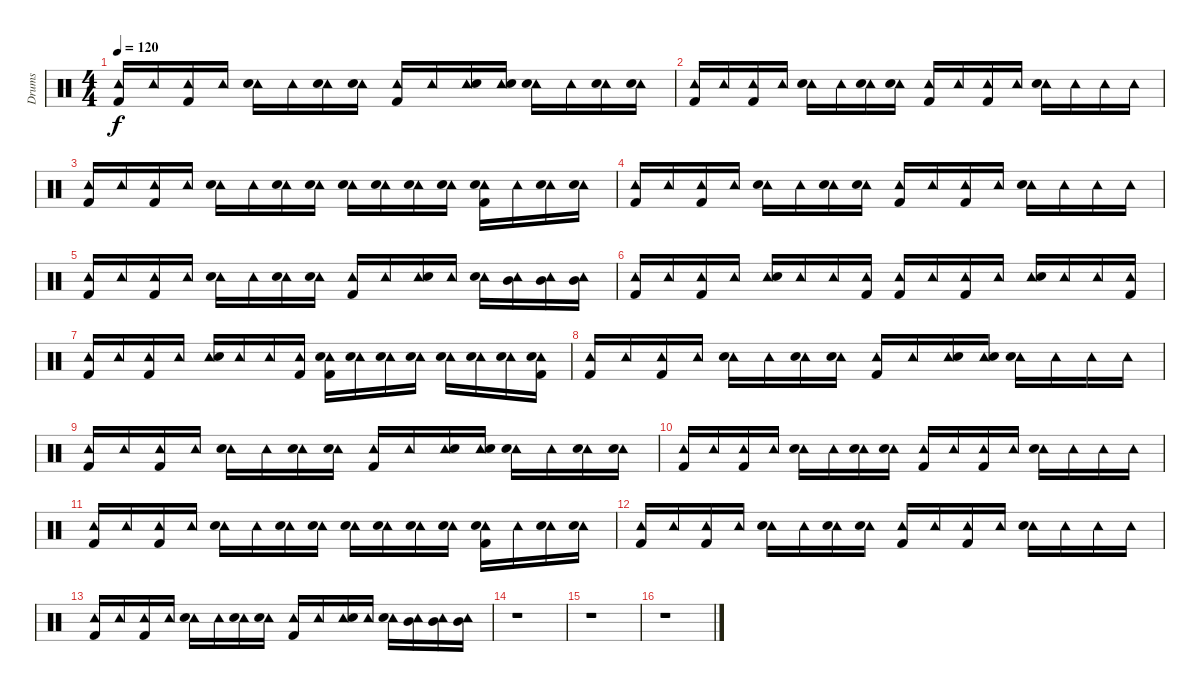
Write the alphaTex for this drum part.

\track ("Drums" "Drums") {instrument percussion}
\staff {score}
\articulation defaults
\ts (4 4)
\tempo 120
\clef neutral
\ks c
("Tambourine (hit)" "Kick (hit) 2").16{dy f} "Tambourine (hit)".16 ("Tambourine (hit)" "Kick (hit) 2").16 "Tambourine (hit)".16 ("Tambourine (hit)" "Snare (hit) 2").16 "Tambourine (hit)".16 ("Tambourine (hit)" "Snare (hit) 2").16 ("Tambourine (hit)" "Snare (hit) 2").16 ("Tambourine (hit)" "Kick (hit) 2").16 "Tambourine (hit)".16 ("Tambourine (hit)" "Snare (hit) 2").16 ("Tambourine (hit)" "Snare (hit) 2").16 ("Tambourine (hit)" "Snare (hit) 2").16 "Tambourine (hit)".16 ("Tambourine (hit)" "Snare (hit) 2").16 ("Tambourine (hit)" "Snare (hit) 2").16 |
("Tambourine (hit)" "Kick (hit) 2").16 "Tambourine (hit)".16 ("Tambourine (hit)" "Kick (hit) 2").16 "Tambourine (hit)".16 ("Tambourine (hit)" "Snare (hit) 2").16 "Tambourine (hit)".16 ("Tambourine (hit)" "Snare (hit) 2").16 ("Tambourine (hit)" "Snare (hit) 2").16 ("Tambourine (hit)" "Kick (hit) 2").16 "Tambourine (hit)".16 ("Tambourine (hit)" "Kick (hit) 2").16 "Tambourine (hit)".16 ("Tambourine (hit)" "Snare (hit) 2").16 "Tambourine (hit)".16 "Tambourine (hit)".16 "Tambourine (hit)".16 |
("Tambourine (hit)" "Kick (hit) 2").16 "Tambourine (hit)".16 ("Tambourine (hit)" "Kick (hit) 2").16 "Tambourine (hit)".16 ("Tambourine (hit)" "Snare (hit) 2").16 "Tambourine (hit)".16 ("Tambourine (hit)" "Snare (hit) 2").16 ("Tambourine (hit)" "Snare (hit) 2").16 ("Tambourine (hit)" "Snare (hit) 2").16 ("Tambourine (hit)" "Snare (hit) 2").16 ("Tambourine (hit)" "Snare (hit) 2").16 ("Tambourine (hit)" "Snare (hit) 2").16 ("Tambourine (hit)" "Snare (hit) 2" "Kick (hit) 2").16 "Tambourine (hit)".16 ("Tambourine (hit)" "Snare (hit) 2").16 ("Tambourine (hit)" "Snare (hit) 2").16 |
("Tambourine (hit)" "Kick (hit) 2").16 "Tambourine (hit)".16 ("Tambourine (hit)" "Kick (hit) 2").16 "Tambourine (hit)".16 ("Tambourine (hit)" "Snare (hit) 2").16 "Tambourine (hit)".16 ("Tambourine (hit)" "Snare (hit) 2").16 ("Tambourine (hit)" "Snare (hit) 2").16 ("Tambourine (hit)" "Kick (hit) 2").16 "Tambourine (hit)".16 ("Tambourine (hit)" "Kick (hit) 2").16 "Tambourine (hit)".16 ("Tambourine (hit)" "Snare (hit) 2").16 "Tambourine (hit)".16 "Tambourine (hit)".16 "Tambourine (hit)".16 |
("Tambourine (hit)" "Kick (hit) 2").16 "Tambourine (hit)".16 ("Tambourine (hit)" "Kick (hit) 2").16 "Tambourine (hit)".16 ("Tambourine (hit)" "Snare (hit) 2").16 "Tambourine (hit)".16 ("Tambourine (hit)" "Snare (hit) 2").16 ("Tambourine (hit)" "Snare (hit) 2").16 ("Tambourine (hit)" "Kick (hit) 2").16 "Tambourine (hit)".16 ("Tambourine (hit)" "Snare (hit) 2").16 "Tambourine (hit)".16 ("Tambourine (hit)" "Snare (hit) 2").16 ("Tambourine (hit)" "Mid Tom (hit)").16 ("Tambourine (hit)" "Mid Tom (hit)").16 ("Tambourine (hit)" "Mid Tom (hit)").16 |
("Tambourine (hit)" "Kick (hit) 2").16{volume 8} "Tambourine (hit)".16 ("Tambourine (hit)" "Kick (hit) 2").16 "Tambourine (hit)".16 ("Tambourine (hit)" "Snare (hit) 2").16 "Tambourine (hit)".16 "Tambourine (hit)".16 ("Tambourine (hit)" "Kick (hit) 2").16 ("Tambourine (hit)" "Kick (hit) 2").16 "Tambourine (hit)".16 ("Tambourine (hit)" "Kick (hit) 2").16 "Tambourine (hit)".16 ("Tambourine (hit)" "Snare (hit) 2").16 "Tambourine (hit)".16 "Tambourine (hit)".16 ("Tambourine (hit)" "Kick (hit) 2").16 |
("Tambourine (hit)" "Kick (hit) 2").16 "Tambourine (hit)".16 ("Tambourine (hit)" "Kick (hit) 2").16 "Tambourine (hit)".16 ("Tambourine (hit)" "Snare (hit) 2").16 "Tambourine (hit)".16 "Tambourine (hit)".16 ("Tambourine (hit)" "Kick (hit) 2").16 ("Tambourine (hit)" "Snare (hit) 2" "Kick (hit) 2").16 ("Tambourine (hit)" "Snare (hit) 2").16 ("Tambourine (hit)" "Snare (hit) 2").16 ("Tambourine (hit)" "Snare (hit) 2").16 ("Tambourine (hit)" "Snare (hit) 2").16 ("Tambourine (hit)" "Snare (hit) 2").16 ("Tambourine (hit)" "Snare (hit) 2").16 ("Tambourine (hit)" "Snare (hit) 2" "Kick (hit) 2").16 |
("Tambourine (hit)" "Kick (hit) 2").16 "Tambourine (hit)".16 ("Tambourine (hit)" "Kick (hit) 2").16 "Tambourine (hit)".16 ("Tambourine (hit)" "Snare (hit) 2").16 "Tambourine (hit)".16 ("Tambourine (hit)" "Snare (hit) 2").16 ("Tambourine (hit)" "Snare (hit) 2").16 ("Tambourine (hit)" "Kick (hit) 2").16 "Tambourine (hit)".16 ("Tambourine (hit)" "Snare (hit) 2").16 ("Tambourine (hit)" "Snare (hit) 2").16 ("Tambourine (hit)" "Snare (hit) 2").16 "Tambourine (hit)".16 "Tambourine (hit)".16 "Tambourine (hit)".16 |
("Tambourine (hit)" "Kick (hit) 2").16 "Tambourine (hit)".16 ("Tambourine (hit)" "Kick (hit) 2").16 "Tambourine (hit)".16 ("Tambourine (hit)" "Snare (hit) 2").16 "Tambourine (hit)".16 ("Tambourine (hit)" "Snare (hit) 2").16 ("Tambourine (hit)" "Snare (hit) 2").16 ("Tambourine (hit)" "Kick (hit) 2").16 "Tambourine (hit)".16 ("Tambourine (hit)" "Snare (hit) 2").16 ("Tambourine (hit)" "Snare (hit) 2").16 ("Tambourine (hit)" "Snare (hit) 2").16 "Tambourine (hit)".16 ("Tambourine (hit)" "Snare (hit) 2").16 ("Tambourine (hit)" "Snare (hit) 2").16 |
("Tambourine (hit)" "Kick (hit) 2").16{volume 0} "Tambourine (hit)".16 ("Tambourine (hit)" "Kick (hit) 2").16 "Tambourine (hit)".16 ("Tambourine (hit)" "Snare (hit) 2").16 "Tambourine (hit)".16 ("Tambourine (hit)" "Snare (hit) 2").16 ("Tambourine (hit)" "Snare (hit) 2").16 ("Tambourine (hit)" "Kick (hit) 2").16 "Tambourine (hit)".16 ("Tambourine (hit)" "Kick (hit) 2").16 "Tambourine (hit)".16 ("Tambourine (hit)" "Snare (hit) 2").16 "Tambourine (hit)".16 "Tambourine (hit)".16 "Tambourine (hit)".16 |
("Tambourine (hit)" "Kick (hit) 2").16 "Tambourine (hit)".16 ("Tambourine (hit)" "Kick (hit) 2").16 "Tambourine (hit)".16 ("Tambourine (hit)" "Snare (hit) 2").16 "Tambourine (hit)".16 ("Tambourine (hit)" "Snare (hit) 2").16 ("Tambourine (hit)" "Snare (hit) 2").16 ("Tambourine (hit)" "Snare (hit) 2").16 ("Tambourine (hit)" "Snare (hit) 2").16 ("Tambourine (hit)" "Snare (hit) 2").16 ("Tambourine (hit)" "Snare (hit) 2").16 ("Tambourine (hit)" "Snare (hit) 2" "Kick (hit) 2").16 "Tambourine (hit)".16 ("Tambourine (hit)" "Snare (hit) 2").16 ("Tambourine (hit)" "Snare (hit) 2").16 |
("Tambourine (hit)" "Kick (hit) 2").16 "Tambourine (hit)".16 ("Tambourine (hit)" "Kick (hit) 2").16 "Tambourine (hit)".16 ("Tambourine (hit)" "Snare (hit) 2").16 "Tambourine (hit)".16 ("Tambourine (hit)" "Snare (hit) 2").16 ("Tambourine (hit)" "Snare (hit) 2").16 ("Tambourine (hit)" "Kick (hit) 2").16 "Tambourine (hit)".16 ("Tambourine (hit)" "Kick (hit) 2").16 "Tambourine (hit)".16 ("Tambourine (hit)" "Snare (hit) 2").16 "Tambourine (hit)".16 "Tambourine (hit)".16 "Tambourine (hit)".16 |
("Tambourine (hit)" "Kick (hit) 2").16 "Tambourine (hit)".16 ("Tambourine (hit)" "Kick (hit) 2").16 "Tambourine (hit)".16 ("Tambourine (hit)" "Snare (hit) 2").16 "Tambourine (hit)".16 ("Tambourine (hit)" "Snare (hit) 2").16 ("Tambourine (hit)" "Snare (hit) 2").16 ("Tambourine (hit)" "Kick (hit) 2").16 "Tambourine (hit)".16 ("Tambourine (hit)" "Snare (hit) 2").16 "Tambourine (hit)".16 ("Tambourine (hit)" "Snare (hit) 2").16 ("Tambourine (hit)" "Mid Tom (hit)").16 ("Tambourine (hit)" "Mid Tom (hit)").16 ("Tambourine (hit)" "Mid Tom (hit)").16 |
r.1 |
r.1 |
r.1
